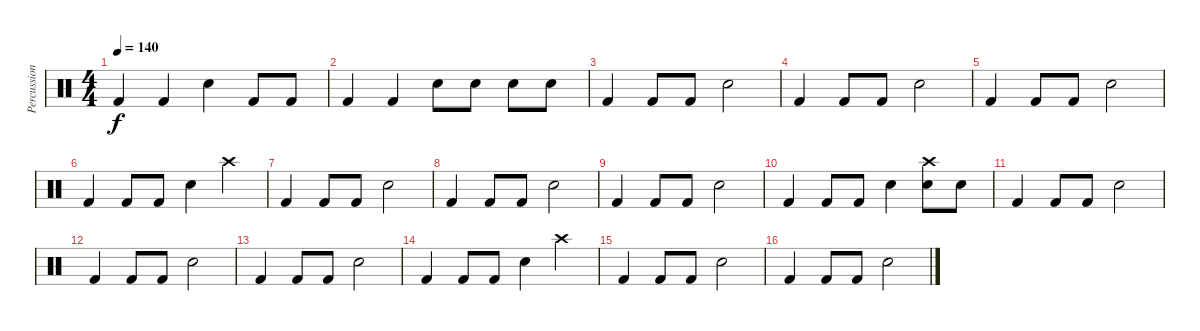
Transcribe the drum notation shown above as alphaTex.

\track ("Percussion" "Percussion") {instrument percussion}
\staff {score}
\articulation defaults
\ts (4 4)
\tempo 140
\clef neutral
\ks c "Kick (hit) 2".4{dy f} "Kick (hit) 2".4 "Snare (hit) 2".4 "Kick (hit) 2".8 "Kick (hit) 2".8
|
"Kick (hit) 2".4 "Kick (hit) 2".4 "Snare (hit) 2".8 "Snare (hit) 2".8 "Snare (hit) 2".8 "Snare (hit) 2".8 |
"Kick (hit) 2".4 "Kick (hit) 2".8 "Kick (hit) 2".8 "Snare (hit) 2".2 |
"Kick (hit) 2".4 "Kick (hit) 2".8 "Kick (hit) 2".8 "Snare (hit) 2".2 |
"Kick (hit) 2".4 "Kick (hit) 2".8 "Kick (hit) 2".8 "Snare (hit) 2".2 |
"Kick (hit) 2".4 "Kick (hit) 2".8 "Kick (hit) 2".8 "Snare (hit) 2".4 "Crash high (hit)".4 |
"Kick (hit) 2".4 "Kick (hit) 2".8 "Kick (hit) 2".8 "Snare (hit) 2".2 |
"Kick (hit) 2".4 "Kick (hit) 2".8 "Kick (hit) 2".8 "Snare (hit) 2".2 |
"Kick (hit) 2".4 "Kick (hit) 2".8 "Kick (hit) 2".8 "Snare (hit) 2".2 |
"Kick (hit) 2".4 "Kick (hit) 2".8 "Kick (hit) 2".8 "Snare (hit) 2".4 ("Crash high (hit)" "Snare (hit) 2").8 "Snare (hit) 2".8 |
"Kick (hit) 2".4 "Kick (hit) 2".8 "Kick (hit) 2".8 "Snare (hit) 2".2 |
"Kick (hit) 2".4 "Kick (hit) 2".8 "Kick (hit) 2".8 "Snare (hit) 2".2 |
"Kick (hit) 2".4 "Kick (hit) 2".8 "Kick (hit) 2".8 "Snare (hit) 2".2 |
"Kick (hit) 2".4 "Kick (hit) 2".8 "Kick (hit) 2".8 "Snare (hit) 2".4 "Crash high (hit)".4 |
"Kick (hit) 2".4 "Kick (hit) 2".8 "Kick (hit) 2".8 "Snare (hit) 2".2 |
"Kick (hit) 2".4 "Kick (hit) 2".8 "Kick (hit) 2".8 "Snare (hit) 2".2
